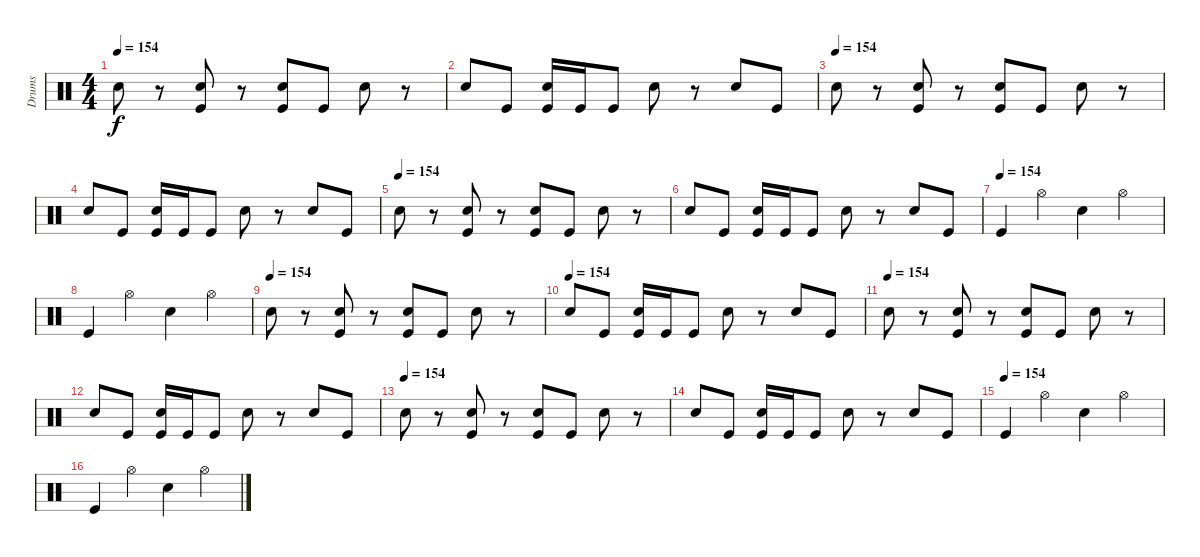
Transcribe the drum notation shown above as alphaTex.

\track ("Drums" "Drums") {instrument percussion}
\staff {score}
\articulation defaults
\ts (4 4)
\tempo 154
\clef neutral
\ks c "Snare (hit) 2".8{dy f}
r.8 ("Kick (hit)" "Snare (hit) 2").8 r.8 ("Kick (hit)" "Snare (hit) 2").8 "Kick (hit)".8 "Snare (hit) 2".8 r.8 |
"Snare (hit) 2".8 "Kick (hit)".8 ("Snare (hit) 2" "Kick (hit)").16 "Kick (hit)".16 "Kick (hit)".8 "Snare (hit) 2".8 r.8 "Snare (hit) 2".8 "Kick (hit)".8 |
\tempo (154)
"Snare (hit) 2".8 r.8 ("Kick (hit)" "Snare (hit) 2").8 r.8 ("Kick (hit)" "Snare (hit) 2").8 "Kick (hit)".8 "Snare (hit) 2".8 r.8 |
"Snare (hit) 2".8 "Kick (hit)".8 ("Snare (hit) 2" "Kick (hit)").16 "Kick (hit)".16 "Kick (hit)".8 "Snare (hit) 2".8 r.8 "Snare (hit) 2".8 "Kick (hit)".8 |
\tempo (154)
"Snare (hit) 2".8 r.8 ("Kick (hit)" "Snare (hit) 2").8 r.8 ("Kick (hit)" "Snare (hit) 2").8 "Kick (hit)".8 "Snare (hit) 2".8 r.8 |
"Snare (hit) 2".8 "Kick (hit)".8 ("Snare (hit) 2" "Kick (hit)").16 "Kick (hit)".16 "Kick (hit)".8 "Snare (hit) 2".8 r.8 "Snare (hit) 2".8 "Kick (hit)".8 |
\tempo (154)
"Kick (hit)".4 "Hi-Hat (open)".4 "Snare (hit) 2".4 "Hi-Hat (open)".4 |
"Kick (hit)".4 "Hi-Hat (open)".4 "Snare (hit) 2".4 "Hi-Hat (open)".4 |
\tempo (154)
"Snare (hit) 2".8 r.8 ("Kick (hit)" "Snare (hit) 2").8 r.8 ("Kick (hit)" "Snare (hit) 2").8 "Kick (hit)".8 "Snare (hit) 2".8 r.8 |
\tempo (154)
"Snare (hit) 2".8 "Kick (hit)".8 ("Snare (hit) 2" "Kick (hit)").16 "Kick (hit)".16 "Kick (hit)".8 "Snare (hit) 2".8 r.8 "Snare (hit) 2".8 "Kick (hit)".8 |
\tempo (154)
"Snare (hit) 2".8 r.8 ("Kick (hit)" "Snare (hit) 2").8 r.8 ("Kick (hit)" "Snare (hit) 2").8 "Kick (hit)".8 "Snare (hit) 2".8 r.8 |
"Snare (hit) 2".8 "Kick (hit)".8 ("Snare (hit) 2" "Kick (hit)").16 "Kick (hit)".16 "Kick (hit)".8 "Snare (hit) 2".8 r.8 "Snare (hit) 2".8 "Kick (hit)".8 |
\tempo (154)
"Snare (hit) 2".8 r.8 ("Kick (hit)" "Snare (hit) 2").8 r.8 ("Kick (hit)" "Snare (hit) 2").8 "Kick (hit)".8 "Snare (hit) 2".8 r.8 |
"Snare (hit) 2".8 "Kick (hit)".8 ("Snare (hit) 2" "Kick (hit)").16 "Kick (hit)".16 "Kick (hit)".8 "Snare (hit) 2".8 r.8 "Snare (hit) 2".8 "Kick (hit)".8 |
\tempo (154)
"Kick (hit)".4 "Hi-Hat (open)".4 "Snare (hit) 2".4 "Hi-Hat (open)".4 |
"Kick (hit)".4 "Hi-Hat (open)".4 "Snare (hit) 2".4 "Hi-Hat (open)".4
